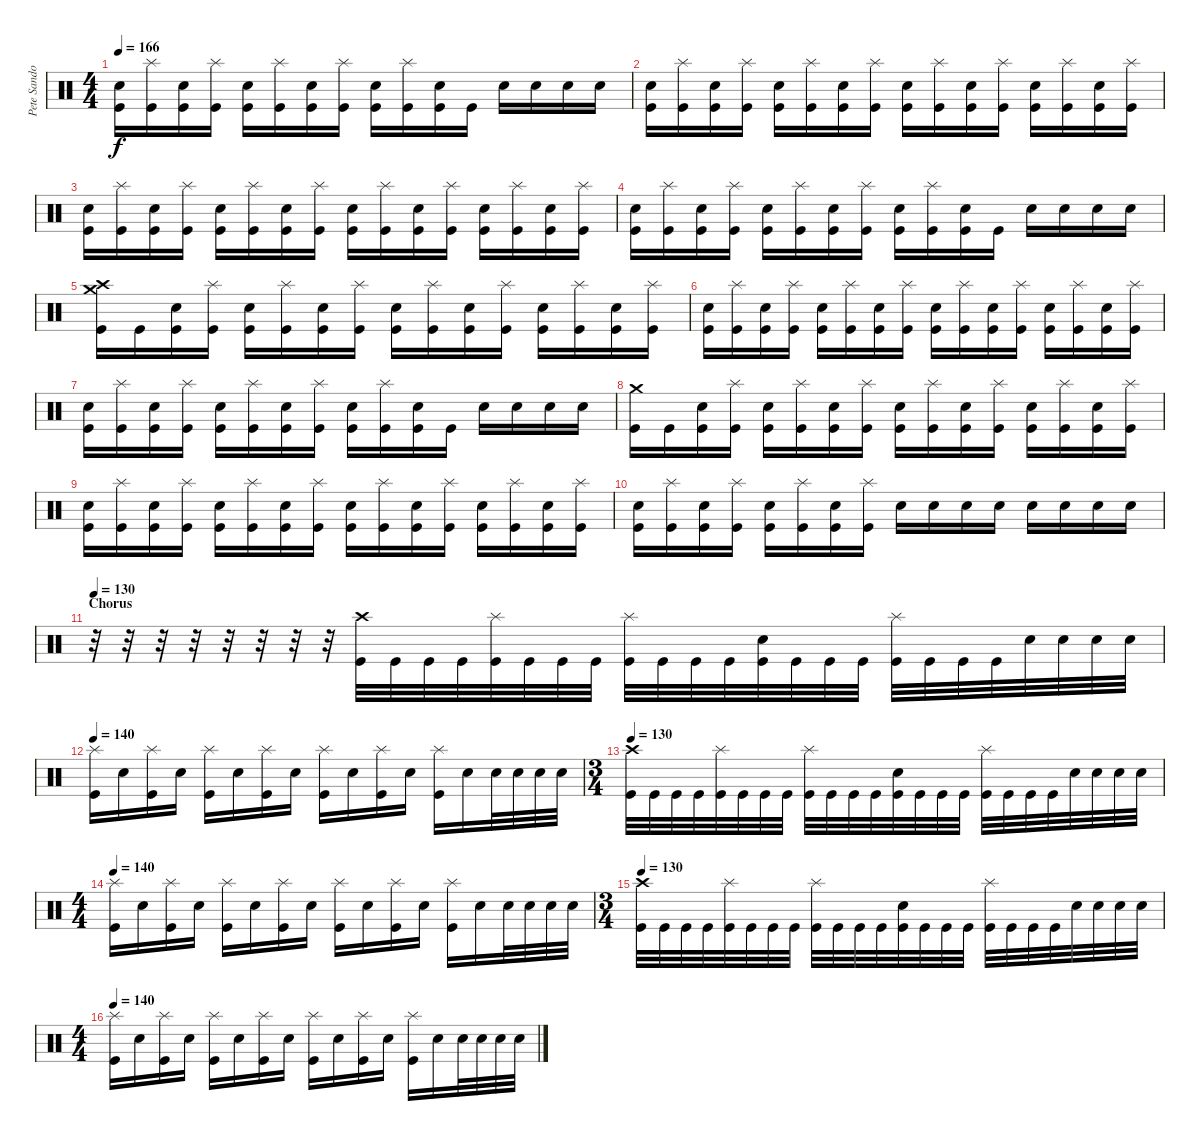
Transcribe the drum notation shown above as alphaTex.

\track ("Pete Sandoval" "Pete Sando") {instrument percussion}
\staff {score}
\articulation defaults
\ts (4 4)
\tempo 166
\clef neutral
\ks c
("Electric Snare (hit)" "Kick (hit)").16{dy f} ("Splash (hit)" "Kick (hit)").16 ("Electric Snare (hit)" "Kick (hit)").16 ("Splash (hit)" "Kick (hit)").16 ("Electric Snare (hit)" "Kick (hit)").16 ("Splash (hit)" "Kick (hit)").16 ("Electric Snare (hit)" "Kick (hit)").16 ("Splash (hit)" "Kick (hit)").16 ("Electric Snare (hit)" "Kick (hit)").16 ("Splash (hit)" "Kick (hit)").16 ("Electric Snare (hit)" "Kick (hit)").16 "Kick (hit)".16 "Electric Snare (hit)".16 "Electric Snare (hit)".16 "Electric Snare (hit)".16 "Electric Snare (hit)".16 |
("Electric Snare (hit)" "Kick (hit)").16 ("Splash (hit)" "Kick (hit)").16 ("Electric Snare (hit)" "Kick (hit)").16 ("Splash (hit)" "Kick (hit)").16 ("Electric Snare (hit)" "Kick (hit)").16 ("Splash (hit)" "Kick (hit)").16 ("Electric Snare (hit)" "Kick (hit)").16 ("Splash (hit)" "Kick (hit)").16 ("Electric Snare (hit)" "Kick (hit)").16 ("Splash (hit)" "Kick (hit)").16 ("Electric Snare (hit)" "Kick (hit)").16 ("Splash (hit)" "Kick (hit)").16 ("Electric Snare (hit)" "Kick (hit)").16 ("Splash (hit)" "Kick (hit)").16 ("Electric Snare (hit)" "Kick (hit)").16 ("Splash (hit)" "Kick (hit)").16 |
("Electric Snare (hit)" "Kick (hit)").16 ("Splash (hit)" "Kick (hit)").16 ("Electric Snare (hit)" "Kick (hit)").16 ("Splash (hit)" "Kick (hit)").16 ("Electric Snare (hit)" "Kick (hit)").16 ("Splash (hit)" "Kick (hit)").16 ("Electric Snare (hit)" "Kick (hit)").16 ("Splash (hit)" "Kick (hit)").16 ("Electric Snare (hit)" "Kick (hit)").16 ("Splash (hit)" "Kick (hit)").16 ("Electric Snare (hit)" "Kick (hit)").16 ("Splash (hit)" "Kick (hit)").16 ("Electric Snare (hit)" "Kick (hit)").16 ("Splash (hit)" "Kick (hit)").16 ("Electric Snare (hit)" "Kick (hit)").16 ("Splash (hit)" "Kick (hit)").16 |
("Electric Snare (hit)" "Kick (hit)").16 ("Splash (hit)" "Kick (hit)").16 ("Electric Snare (hit)" "Kick (hit)").16 ("Splash (hit)" "Kick (hit)").16 ("Electric Snare (hit)" "Kick (hit)").16 ("Splash (hit)" "Kick (hit)").16 ("Electric Snare (hit)" "Kick (hit)").16 ("Splash (hit)" "Kick (hit)").16 ("Electric Snare (hit)" "Kick (hit)").16 ("Splash (hit)" "Kick (hit)").16 ("Electric Snare (hit)" "Kick (hit)").16 "Kick (hit)".16 "Electric Snare (hit)".16 "Electric Snare (hit)".16 "Electric Snare (hit)".16 "Electric Snare (hit)".16 |
("Crash medium (hit)" "Crash high (hit)" "Kick (hit)").16 "Kick (hit)".16 ("Electric Snare (hit)" "Kick (hit)").16 ("Splash (hit)" "Kick (hit)").16 ("Electric Snare (hit)" "Kick (hit)").16 ("Splash (hit)" "Kick (hit)").16 ("Electric Snare (hit)" "Kick (hit)").16 ("Splash (hit)" "Kick (hit)").16 ("Electric Snare (hit)" "Kick (hit)").16 ("Splash (hit)" "Kick (hit)").16 ("Electric Snare (hit)" "Kick (hit)").16 ("Splash (hit)" "Kick (hit)").16 ("Electric Snare (hit)" "Kick (hit)").16 ("Splash (hit)" "Kick (hit)").16 ("Electric Snare (hit)" "Kick (hit)").16 ("Splash (hit)" "Kick (hit)").16 |
("Electric Snare (hit)" "Kick (hit)").16 ("Splash (hit)" "Kick (hit)").16 ("Electric Snare (hit)" "Kick (hit)").16 ("Splash (hit)" "Kick (hit)").16 ("Electric Snare (hit)" "Kick (hit)").16 ("Splash (hit)" "Kick (hit)").16 ("Electric Snare (hit)" "Kick (hit)").16 ("Splash (hit)" "Kick (hit)").16 ("Electric Snare (hit)" "Kick (hit)").16 ("Splash (hit)" "Kick (hit)").16 ("Electric Snare (hit)" "Kick (hit)").16 ("Splash (hit)" "Kick (hit)").16 ("Electric Snare (hit)" "Kick (hit)").16 ("Splash (hit)" "Kick (hit)").16 ("Electric Snare (hit)" "Kick (hit)").16 ("Splash (hit)" "Kick (hit)").16 |
("Electric Snare (hit)" "Kick (hit)").16 ("Splash (hit)" "Kick (hit)").16 ("Electric Snare (hit)" "Kick (hit)").16 ("Splash (hit)" "Kick (hit)").16 ("Electric Snare (hit)" "Kick (hit)").16 ("Splash (hit)" "Kick (hit)").16 ("Electric Snare (hit)" "Kick (hit)").16 ("Splash (hit)" "Kick (hit)").16 ("Electric Snare (hit)" "Kick (hit)").16 ("Splash (hit)" "Kick (hit)").16 ("Electric Snare (hit)" "Kick (hit)").16 "Kick (hit)".16 "Electric Snare (hit)".16 "Electric Snare (hit)".16 "Electric Snare (hit)".16 "Electric Snare (hit)".16 |
("Crash medium (hit)" "Kick (hit)").16 "Kick (hit)".16 ("Electric Snare (hit)" "Kick (hit)").16 ("Splash (hit)" "Kick (hit)").16 ("Electric Snare (hit)" "Kick (hit)").16 ("Splash (hit)" "Kick (hit)").16 ("Electric Snare (hit)" "Kick (hit)").16 ("Splash (hit)" "Kick (hit)").16 ("Electric Snare (hit)" "Kick (hit)").16 ("Splash (hit)" "Kick (hit)").16 ("Electric Snare (hit)" "Kick (hit)").16 ("Splash (hit)" "Kick (hit)").16 ("Electric Snare (hit)" "Kick (hit)").16 ("Splash (hit)" "Kick (hit)").16 ("Electric Snare (hit)" "Kick (hit)").16 ("Splash (hit)" "Kick (hit)").16 |
("Electric Snare (hit)" "Kick (hit)").16 ("Splash (hit)" "Kick (hit)").16 ("Electric Snare (hit)" "Kick (hit)").16 ("Splash (hit)" "Kick (hit)").16 ("Electric Snare (hit)" "Kick (hit)").16 ("Splash (hit)" "Kick (hit)").16 ("Electric Snare (hit)" "Kick (hit)").16 ("Splash (hit)" "Kick (hit)").16 ("Electric Snare (hit)" "Kick (hit)").16 ("Splash (hit)" "Kick (hit)").16 ("Electric Snare (hit)" "Kick (hit)").16 ("Splash (hit)" "Kick (hit)").16 ("Electric Snare (hit)" "Kick (hit)").16 ("Splash (hit)" "Kick (hit)").16 ("Electric Snare (hit)" "Kick (hit)").16 ("Splash (hit)" "Kick (hit)").16 |
("Electric Snare (hit)" "Kick (hit)").16 ("Splash (hit)" "Kick (hit)").16 ("Electric Snare (hit)" "Kick (hit)").16 ("Splash (hit)" "Kick (hit)").16 ("Electric Snare (hit)" "Kick (hit)").16 ("Splash (hit)" "Kick (hit)").16 ("Electric Snare (hit)" "Kick (hit)").16 ("Splash (hit)" "Kick (hit)").16 "Electric Snare (hit)".16 "Electric Snare (hit)".16 "Electric Snare (hit)".16 "Electric Snare (hit)".16 "Electric Snare (hit)".16 "Electric Snare (hit)".16 "Electric Snare (hit)".16 "Electric Snare (hit)".16 |
\section ("" "Chorus")
\tempo 130
r.32 r.32 r.32 r.32 r.32 r.32 r.32 r.32 ("Crash high (hit)" "Kick (hit)").32 "Kick (hit)".32 "Kick (hit)".32 "Kick (hit)".32 ("Splash (hit)" "Kick (hit)").32 "Kick (hit)".32 "Kick (hit)".32 "Kick (hit)".32 ("Splash (hit)" "Kick (hit)").32 "Kick (hit)".32 "Kick (hit)".32 "Kick (hit)".32 ("Electric Snare (hit)" "Kick (hit)").32 "Kick (hit)".32 "Kick (hit)".32 "Kick (hit)".32 ("Splash (hit)" "Kick (hit)").32 "Kick (hit)".32 "Kick (hit)".32 "Kick (hit)".32 "Electric Snare (hit)".32 "Electric Snare (hit)".32 "Electric Snare (hit)".32 "Electric Snare (hit)".32 |
\tempo 140
("Splash (hit)" "Kick (hit)").16 "Electric Snare (hit)".16 ("Splash (hit)" "Kick (hit)").16 "Electric Snare (hit)".16 ("Splash (hit)" "Kick (hit)").16 "Electric Snare (hit)".16 ("Splash (hit)" "Kick (hit)").16 "Electric Snare (hit)".16 ("Splash (hit)" "Kick (hit)").16 "Electric Snare (hit)".16 ("Splash (hit)" "Kick (hit)").16 "Electric Snare (hit)".16 ("Splash (hit)" "Kick (hit)").16 "Electric Snare (hit)".16 "Electric Snare (hit)".32 "Electric Snare (hit)".32 "Electric Snare (hit)".32 "Electric Snare (hit)".32 |
\ts (3 4)
\tempo 130
("Crash high (hit)" "Kick (hit)").32 "Kick (hit)".32 "Kick (hit)".32 "Kick (hit)".32 ("Splash (hit)" "Kick (hit)").32 "Kick (hit)".32 "Kick (hit)".32 "Kick (hit)".32 ("Splash (hit)" "Kick (hit)").32 "Kick (hit)".32 "Kick (hit)".32 "Kick (hit)".32 ("Electric Snare (hit)" "Kick (hit)").32 "Kick (hit)".32 "Kick (hit)".32 "Kick (hit)".32 ("Splash (hit)" "Kick (hit)").32 "Kick (hit)".32 "Kick (hit)".32 "Kick (hit)".32 "Electric Snare (hit)".32 "Electric Snare (hit)".32 "Electric Snare (hit)".32 "Electric Snare (hit)".32 |
\ts (4 4)
\tempo 140
("Splash (hit)" "Kick (hit)").16 "Electric Snare (hit)".16 ("Splash (hit)" "Kick (hit)").16 "Electric Snare (hit)".16 ("Splash (hit)" "Kick (hit)").16 "Electric Snare (hit)".16 ("Splash (hit)" "Kick (hit)").16 "Electric Snare (hit)".16 ("Splash (hit)" "Kick (hit)").16 "Electric Snare (hit)".16 ("Splash (hit)" "Kick (hit)").16 "Electric Snare (hit)".16 ("Splash (hit)" "Kick (hit)").16 "Electric Snare (hit)".16 "Electric Snare (hit)".32 "Electric Snare (hit)".32 "Electric Snare (hit)".32 "Electric Snare (hit)".32 |
\ts (3 4)
\tempo 130
("Crash high (hit)" "Kick (hit)").32 "Kick (hit)".32 "Kick (hit)".32 "Kick (hit)".32 ("Splash (hit)" "Kick (hit)").32 "Kick (hit)".32 "Kick (hit)".32 "Kick (hit)".32 ("Splash (hit)" "Kick (hit)").32 "Kick (hit)".32 "Kick (hit)".32 "Kick (hit)".32 ("Electric Snare (hit)" "Kick (hit)").32 "Kick (hit)".32 "Kick (hit)".32 "Kick (hit)".32 ("Splash (hit)" "Kick (hit)").32 "Kick (hit)".32 "Kick (hit)".32 "Kick (hit)".32 "Electric Snare (hit)".32 "Electric Snare (hit)".32 "Electric Snare (hit)".32 "Electric Snare (hit)".32 |
\ts (4 4)
\tempo 140
("Splash (hit)" "Kick (hit)").16 "Electric Snare (hit)".16 ("Splash (hit)" "Kick (hit)").16 "Electric Snare (hit)".16 ("Splash (hit)" "Kick (hit)").16 "Electric Snare (hit)".16 ("Splash (hit)" "Kick (hit)").16 "Electric Snare (hit)".16 ("Splash (hit)" "Kick (hit)").16 "Electric Snare (hit)".16 ("Splash (hit)" "Kick (hit)").16 "Electric Snare (hit)".16 ("Splash (hit)" "Kick (hit)").16 "Electric Snare (hit)".16 "Electric Snare (hit)".32 "Electric Snare (hit)".32 "Electric Snare (hit)".32 "Electric Snare (hit)".32
